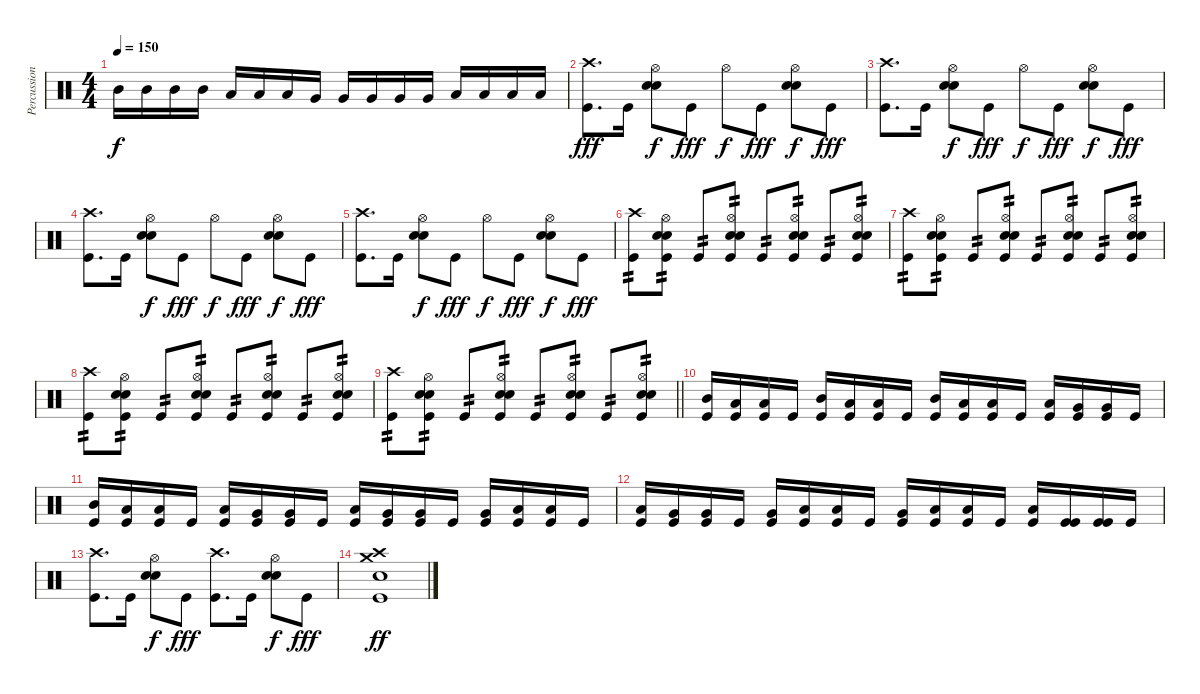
\track ("Percussion" "Percussion") {instrument percussion}
\staff {score}
\articulation defaults
\ts (4 4)
\tempo 150
\clef neutral
\ks c "Mid Tom (hit)".16{dy f} "Mid Tom (hit)".16 "Mid Tom (hit)".16 "Mid Tom (hit)".16 "Low Tom (hit)".16 "Low Tom (hit)".16 "Low Tom (hit)".16 "Very Low Tom (hit)".16 "Very Low Tom (hit)".16 "Very Low Tom (hit)".16 "Very Low Tom (hit)".16 "Very Low Tom (hit)".16 "Low Floor Tom (hit)".16 "Low Floor Tom (hit)".16 "Low Floor Tom (hit)".16 "Low Floor Tom (hit)".16
|
("Crash high (hit)" "Kick (hit)").8{d dy fff} "Kick (hit)".16 ("Hi-Hat (open)" "Snare (hit) 2" "Electric Snare (hit)").8{dy f} "Kick (hit)".8{dy fff} "Hi-Hat (open)".8{dy f} "Kick (hit)".8{dy fff} ("Hi-Hat (open)" "Snare (hit) 2" "Electric Snare (hit)").8{dy f} "Kick (hit)".8{dy fff} |
("Crash high (hit)" "Kick (hit)").8{d} "Kick (hit)".16 ("Hi-Hat (open)" "Snare (hit) 2" "Electric Snare (hit)").8{dy f} "Kick (hit)".8{dy fff} "Hi-Hat (open)".8{dy f} "Kick (hit)".8{dy fff} ("Hi-Hat (open)" "Snare (hit) 2" "Electric Snare (hit)").8{dy f} "Kick (hit)".8{dy fff} |
("Crash high (hit)" "Kick (hit)").8{d} "Kick (hit)".16 ("Hi-Hat (open)" "Snare (hit) 2" "Electric Snare (hit)").8{dy f} "Kick (hit)".8{dy fff} "Hi-Hat (open)".8{dy f} "Kick (hit)".8{dy fff} ("Hi-Hat (open)" "Snare (hit) 2" "Electric Snare (hit)").8{dy f} "Kick (hit)".8{dy fff} |
("Crash high (hit)" "Kick (hit)").8{d} "Kick (hit)".16 ("Hi-Hat (open)" "Snare (hit) 2" "Electric Snare (hit)").8{dy f} "Kick (hit)".8{dy fff} "Hi-Hat (open)".8{dy f} "Kick (hit)".8{dy fff} ("Hi-Hat (open)" "Snare (hit) 2" "Electric Snare (hit)").8{dy f} "Kick (hit)".8{dy fff} |
("Crash high (hit)" "Kick (hit)").8{tp 2} ("Hi-Hat (open)" "Snare (hit) 2" "Electric Snare (hit)" "Kick (hit)").8{tp 2} "Kick (hit)".8{tp 2} ("Hi-Hat (open)" "Snare (hit) 2" "Electric Snare (hit)" "Kick (hit)").8{tp 2} "Kick (hit)".8{tp 2} ("Hi-Hat (open)" "Snare (hit) 2" "Electric Snare (hit)" "Kick (hit)").8{tp 2} "Kick (hit)".8{tp 2} ("Hi-Hat (open)" "Snare (hit) 2" "Electric Snare (hit)" "Kick (hit)").8{tp 2} |
("Crash high (hit)" "Kick (hit)").8{tp 2} ("Hi-Hat (open)" "Snare (hit) 2" "Electric Snare (hit)" "Kick (hit)").8{tp 2} "Kick (hit)".8{tp 2} ("Hi-Hat (open)" "Snare (hit) 2" "Electric Snare (hit)" "Kick (hit)").8{tp 2} "Kick (hit)".8{tp 2} ("Hi-Hat (open)" "Snare (hit) 2" "Electric Snare (hit)" "Kick (hit)").8{tp 2} "Kick (hit)".8{tp 2} ("Hi-Hat (open)" "Snare (hit) 2" "Electric Snare (hit)" "Kick (hit)").8{tp 2} |
("Crash high (hit)" "Kick (hit)").8{tp 2} ("Hi-Hat (open)" "Snare (hit) 2" "Electric Snare (hit)" "Kick (hit)").8{tp 2} "Kick (hit)".8{tp 2} ("Hi-Hat (open)" "Snare (hit) 2" "Electric Snare (hit)" "Kick (hit)").8{tp 2} "Kick (hit)".8{tp 2} ("Hi-Hat (open)" "Snare (hit) 2" "Electric Snare (hit)" "Kick (hit)").8{tp 2} "Kick (hit)".8{tp 2} ("Hi-Hat (open)" "Snare (hit) 2" "Electric Snare (hit)" "Kick (hit)").8{tp 2} |
\barLineRight lightlight
("Crash high (hit)" "Kick (hit)").8{tp 2} ("Hi-Hat (open)" "Snare (hit) 2" "Electric Snare (hit)" "Kick (hit)").8{tp 2} "Kick (hit)".8{tp 2} ("Hi-Hat (open)" "Snare (hit) 2" "Electric Snare (hit)" "Kick (hit)").8{tp 2} "Kick (hit)".8{tp 2} ("Hi-Hat (open)" "Snare (hit) 2" "Electric Snare (hit)" "Kick (hit)").8{tp 2} "Kick (hit)".8{tp 2} ("Hi-Hat (open)" "Snare (hit) 2" "Electric Snare (hit)" "Kick (hit)").8{tp 2} |
("Mid Tom (hit)" "Kick (hit)").16 ("Low Tom (hit)" "Kick (hit)").16 ("Low Tom (hit)" "Kick (hit)").16 "Kick (hit)".16 ("Mid Tom (hit)" "Kick (hit)").16 ("Low Tom (hit)" "Kick (hit)").16 ("Low Tom (hit)" "Kick (hit)").16 "Kick (hit)".16 ("Mid Tom (hit)" "Kick (hit)").16 ("Low Tom (hit)" "Kick (hit)").16 ("Low Tom (hit)" "Kick (hit)").16 "Kick (hit)".16 ("Low Tom (hit)" "Kick (hit)").16 ("Very Low Tom (hit)" "Kick (hit)").16 ("Very Low Tom (hit)" "Kick (hit)").16 "Kick (hit)".16 |
("Mid Tom (hit)" "Kick (hit)").16 ("Low Tom (hit)" "Kick (hit)").16 ("Low Tom (hit)" "Kick (hit)").16 "Kick (hit)".16 ("Low Tom (hit)" "Kick (hit)").16 ("Very Low Tom (hit)" "Kick (hit)").16 ("Very Low Tom (hit)" "Kick (hit)").16 "Kick (hit)".16 ("Low Tom (hit)" "Kick (hit)").16 ("Very Low Tom (hit)" "Kick (hit)").16 ("Very Low Tom (hit)" "Kick (hit)").16 "Kick (hit)".16 ("Very Low Tom (hit)" "Kick (hit)").16 ("Low Floor Tom (hit)" "Kick (hit)").16 ("Low Floor Tom (hit)" "Kick (hit)").16 "Kick (hit)".16 |
("Low Tom (hit)" "Kick (hit)").16 ("Very Low Tom (hit)" "Kick (hit)").16 ("Very Low Tom (hit)" "Kick (hit)").16 "Kick (hit)".16 ("Very Low Tom (hit)" "Kick (hit)").16 ("Low Floor Tom (hit)" "Kick (hit)").16 ("Low Floor Tom (hit)" "Kick (hit)").16 "Kick (hit)".16 ("Very Low Tom (hit)" "Kick (hit)").16 ("Low Floor Tom (hit)" "Kick (hit)").16 ("Low Floor Tom (hit)" "Kick (hit)").16 "Kick (hit)".16 ("Low Floor Tom (hit)" "Kick (hit)").16 ("Kick (hit)" "Kick (hit)").16 ("Kick (hit)" "Kick (hit)").16 "Kick (hit)".16 |
("Crash high (hit)" "Kick (hit)").8{d} "Kick (hit)".16 ("Hi-Hat (open)" "Snare (hit) 2" "Electric Snare (hit)").8{dy f} "Kick (hit)".8{dy fff} ("Crash high (hit)" "Kick (hit)").8{d} "Kick (hit)".16 ("Hi-Hat (open)" "Snare (hit) 2" "Electric Snare (hit)").8{dy f} "Kick (hit)".8{dy fff} |
("Crash medium (hit)" "Crash high (hit)" "Electric Snare (hit)" "Kick (hit)").1{dy ff}
